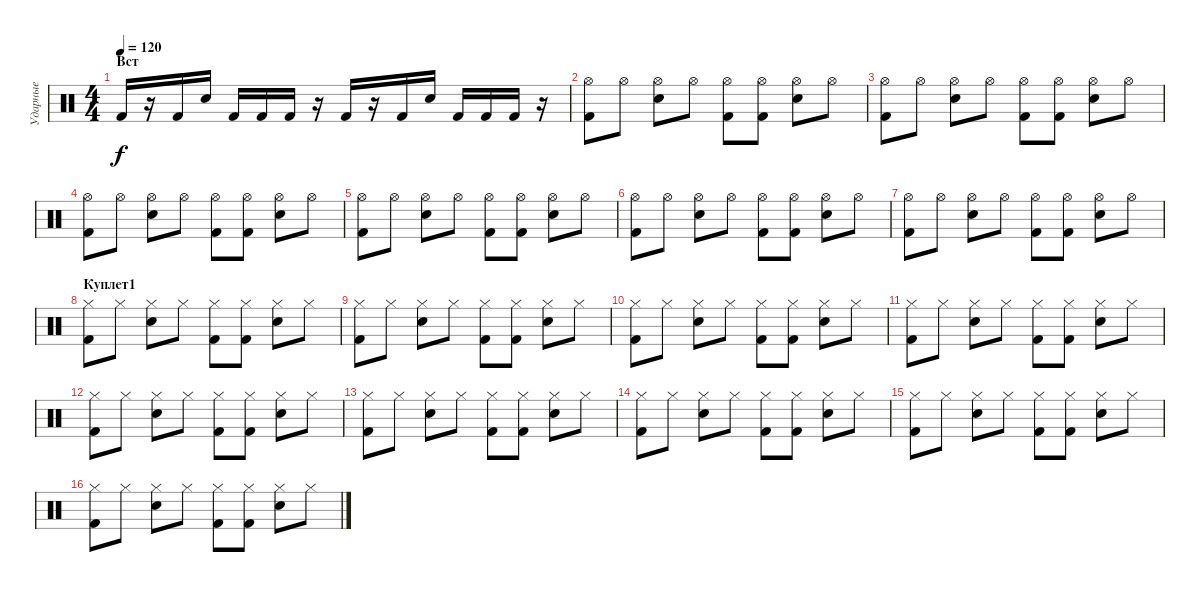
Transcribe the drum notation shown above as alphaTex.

\track ("Ударные" "Ударные") {instrument percussion}
\staff {score}
\articulation defaults
\ts (4 4)
\section ("" "Вст")
\tempo 120
\clef neutral
\ks c "Kick (hit) 2".16{dy f}
r.16 "Kick (hit) 2".16 "Snare (hit) 2".16 "Kick (hit) 2".16 "Kick (hit) 2".16 "Kick (hit) 2".16 r.16 "Kick (hit) 2".16 r.16 "Kick (hit) 2".16 "Snare (hit) 2".16 "Kick (hit) 2".16 "Kick (hit) 2".16 "Kick (hit) 2".16 r.16 |
("Hi-Hat (open)" "Kick (hit) 2").8 "Hi-Hat (open)".8 ("Hi-Hat (open)" "Snare (hit) 2").8 "Hi-Hat (open)".8 ("Hi-Hat (open)" "Kick (hit) 2").8 ("Hi-Hat (open)" "Kick (hit) 2").8 ("Hi-Hat (open)" "Snare (hit) 2").8 "Hi-Hat (open)".8 |
("Hi-Hat (open)" "Kick (hit) 2").8 "Hi-Hat (open)".8 ("Hi-Hat (open)" "Snare (hit) 2").8 "Hi-Hat (open)".8 ("Hi-Hat (open)" "Kick (hit) 2").8 ("Hi-Hat (open)" "Kick (hit) 2").8 ("Hi-Hat (open)" "Snare (hit) 2").8 "Hi-Hat (open)".8 |
("Hi-Hat (open)" "Kick (hit) 2").8 "Hi-Hat (open)".8 ("Hi-Hat (open)" "Snare (hit) 2").8 "Hi-Hat (open)".8 ("Hi-Hat (open)" "Kick (hit) 2").8 ("Hi-Hat (open)" "Kick (hit) 2").8 ("Hi-Hat (open)" "Snare (hit) 2").8 "Hi-Hat (open)".8 |
("Hi-Hat (open)" "Kick (hit) 2").8 "Hi-Hat (open)".8 ("Hi-Hat (open)" "Snare (hit) 2").8 "Hi-Hat (open)".8 ("Hi-Hat (open)" "Kick (hit) 2").8 ("Hi-Hat (open)" "Kick (hit) 2").8 ("Hi-Hat (open)" "Snare (hit) 2").8 "Hi-Hat (open)".8 |
("Hi-Hat (open)" "Kick (hit) 2").8 "Hi-Hat (open)".8 ("Hi-Hat (open)" "Snare (hit) 2").8 "Hi-Hat (open)".8 ("Hi-Hat (open)" "Kick (hit) 2").8 ("Hi-Hat (open)" "Kick (hit) 2").8 ("Hi-Hat (open)" "Snare (hit) 2").8 "Hi-Hat (open)".8 |
("Hi-Hat (open)" "Kick (hit) 2").8 "Hi-Hat (open)".8 ("Hi-Hat (open)" "Snare (hit) 2").8 "Hi-Hat (open)".8 ("Hi-Hat (open)" "Kick (hit) 2").8 ("Hi-Hat (open)" "Kick (hit) 2").8 ("Hi-Hat (open)" "Snare (hit) 2").8 "Hi-Hat (open)".8 |
\section ("" "Куплет1")
("Hi-Hat (closed)" "Kick (hit) 2").8 "Hi-Hat (closed)".8 ("Hi-Hat (closed)" "Snare (hit) 2").8 "Hi-Hat (closed)".8 ("Hi-Hat (closed)" "Kick (hit) 2").8 ("Hi-Hat (closed)" "Kick (hit) 2").8 ("Hi-Hat (closed)" "Snare (hit) 2").8 "Hi-Hat (closed)".8 |
("Hi-Hat (closed)" "Kick (hit) 2").8 "Hi-Hat (closed)".8 ("Hi-Hat (closed)" "Snare (hit) 2").8 "Hi-Hat (closed)".8 ("Hi-Hat (closed)" "Kick (hit) 2").8 ("Hi-Hat (closed)" "Kick (hit) 2").8 ("Hi-Hat (closed)" "Snare (hit) 2").8 "Hi-Hat (closed)".8 |
("Hi-Hat (closed)" "Kick (hit) 2").8 "Hi-Hat (closed)".8 ("Hi-Hat (closed)" "Snare (hit) 2").8 "Hi-Hat (closed)".8 ("Hi-Hat (closed)" "Kick (hit) 2").8 ("Hi-Hat (closed)" "Kick (hit) 2").8 ("Hi-Hat (closed)" "Snare (hit) 2").8 "Hi-Hat (closed)".8 |
("Hi-Hat (closed)" "Kick (hit) 2").8 "Hi-Hat (closed)".8 ("Hi-Hat (closed)" "Snare (hit) 2").8 "Hi-Hat (closed)".8 ("Hi-Hat (closed)" "Kick (hit) 2").8 ("Hi-Hat (closed)" "Kick (hit) 2").8 ("Hi-Hat (closed)" "Snare (hit) 2").8 "Hi-Hat (closed)".8 |
("Hi-Hat (closed)" "Kick (hit) 2").8 "Hi-Hat (closed)".8 ("Hi-Hat (closed)" "Snare (hit) 2").8 "Hi-Hat (closed)".8 ("Hi-Hat (closed)" "Kick (hit) 2").8 ("Hi-Hat (closed)" "Kick (hit) 2").8 ("Hi-Hat (closed)" "Snare (hit) 2").8 "Hi-Hat (closed)".8 |
("Hi-Hat (closed)" "Kick (hit) 2").8 "Hi-Hat (closed)".8 ("Hi-Hat (closed)" "Snare (hit) 2").8 "Hi-Hat (closed)".8 ("Hi-Hat (closed)" "Kick (hit) 2").8 ("Hi-Hat (closed)" "Kick (hit) 2").8 ("Hi-Hat (closed)" "Snare (hit) 2").8 "Hi-Hat (closed)".8 |
("Hi-Hat (closed)" "Kick (hit) 2").8 "Hi-Hat (closed)".8 ("Hi-Hat (closed)" "Snare (hit) 2").8 "Hi-Hat (closed)".8 ("Hi-Hat (closed)" "Kick (hit) 2").8 ("Hi-Hat (closed)" "Kick (hit) 2").8 ("Hi-Hat (closed)" "Snare (hit) 2").8 "Hi-Hat (closed)".8 |
("Hi-Hat (closed)" "Kick (hit) 2").8 "Hi-Hat (closed)".8 ("Hi-Hat (closed)" "Snare (hit) 2").8 "Hi-Hat (closed)".8 ("Hi-Hat (closed)" "Kick (hit) 2").8 ("Hi-Hat (closed)" "Kick (hit) 2").8 ("Hi-Hat (closed)" "Snare (hit) 2").8 "Hi-Hat (closed)".8 |
("Hi-Hat (closed)" "Kick (hit) 2").8 "Hi-Hat (closed)".8 ("Hi-Hat (closed)" "Snare (hit) 2").8 "Hi-Hat (closed)".8 ("Hi-Hat (closed)" "Kick (hit) 2").8 ("Hi-Hat (closed)" "Kick (hit) 2").8 ("Hi-Hat (closed)" "Snare (hit) 2").8 "Hi-Hat (closed)".8
